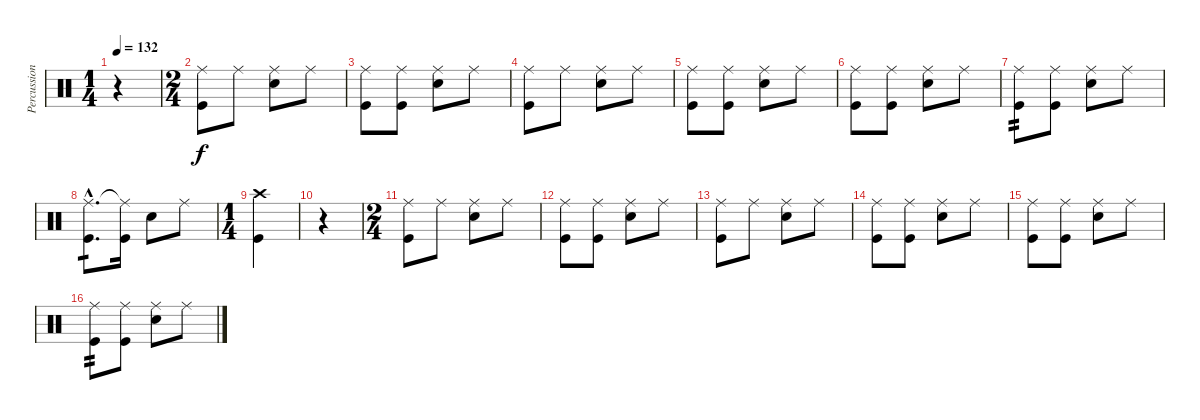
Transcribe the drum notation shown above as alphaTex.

\track ("Percussion" "Percussion") {instrument percussion}
\staff {score}
\articulation defaults
\ts (1 4)
\tempo 132
\clef neutral
\ks c
r.4{dy f} |
\ts (2 4)
("Ride (middle)" "Kick (hit)").8 "Ride (middle)".8 ("Ride (middle)" "Electric Snare (hit)").8 "Ride (middle)".8 |
("Ride (middle)" "Kick (hit)").8 ("Ride (middle)" "Kick (hit)").8 ("Ride (middle)" "Electric Snare (hit)").8 "Ride (middle)".8 |
("Ride (middle)" "Kick (hit)").8 "Ride (middle)".8 ("Ride (middle)" "Electric Snare (hit)").8 "Ride (middle)".8 |
("Ride (middle)" "Kick (hit)").8 ("Ride (middle)" "Kick (hit)").8 ("Ride (middle)" "Electric Snare (hit)").8 "Ride (middle)".8 |
("Ride (middle)" "Kick (hit)").8 ("Ride (middle)" "Kick (hit)").8 ("Ride (middle)" "Electric Snare (hit)").8 "Ride (middle)".8 |
("Ride (middle)" "Kick (hit)").8{tp 2} ("Ride (middle)" "Kick (hit)").8 ("Ride (middle)" "Electric Snare (hit)").8 "Ride (middle)".8 |
("Ride (middle)"{hac} "Kick (hit)"{hac}).8{d tp 1} ("Ride (middle)"{t} "Kick (hit)").16 "Electric Snare (hit)".8 "Ride (middle)".8 |
\ts (1 4)
("Kick (hit)" "Crash high (hit)").4 |
r.4 |
\ts (2 4)
("Ride (middle)" "Kick (hit)").8 "Ride (middle)".8 ("Ride (middle)" "Electric Snare (hit)").8 "Ride (middle)".8 |
("Ride (middle)" "Kick (hit)").8 ("Ride (middle)" "Kick (hit)").8 ("Ride (middle)" "Electric Snare (hit)").8 "Ride (middle)".8 |
("Ride (middle)" "Kick (hit)").8 "Ride (middle)".8 ("Ride (middle)" "Electric Snare (hit)").8 "Ride (middle)".8 |
("Ride (middle)" "Kick (hit)").8 ("Ride (middle)" "Kick (hit)").8 ("Ride (middle)" "Electric Snare (hit)").8 "Ride (middle)".8 |
("Ride (middle)" "Kick (hit)").8 ("Ride (middle)" "Kick (hit)").8 ("Ride (middle)" "Electric Snare (hit)").8 "Ride (middle)".8 |
("Ride (middle)" "Kick (hit)").8{tp 2} ("Ride (middle)" "Kick (hit)").8 ("Ride (middle)" "Electric Snare (hit)").8 "Ride (middle)".8
